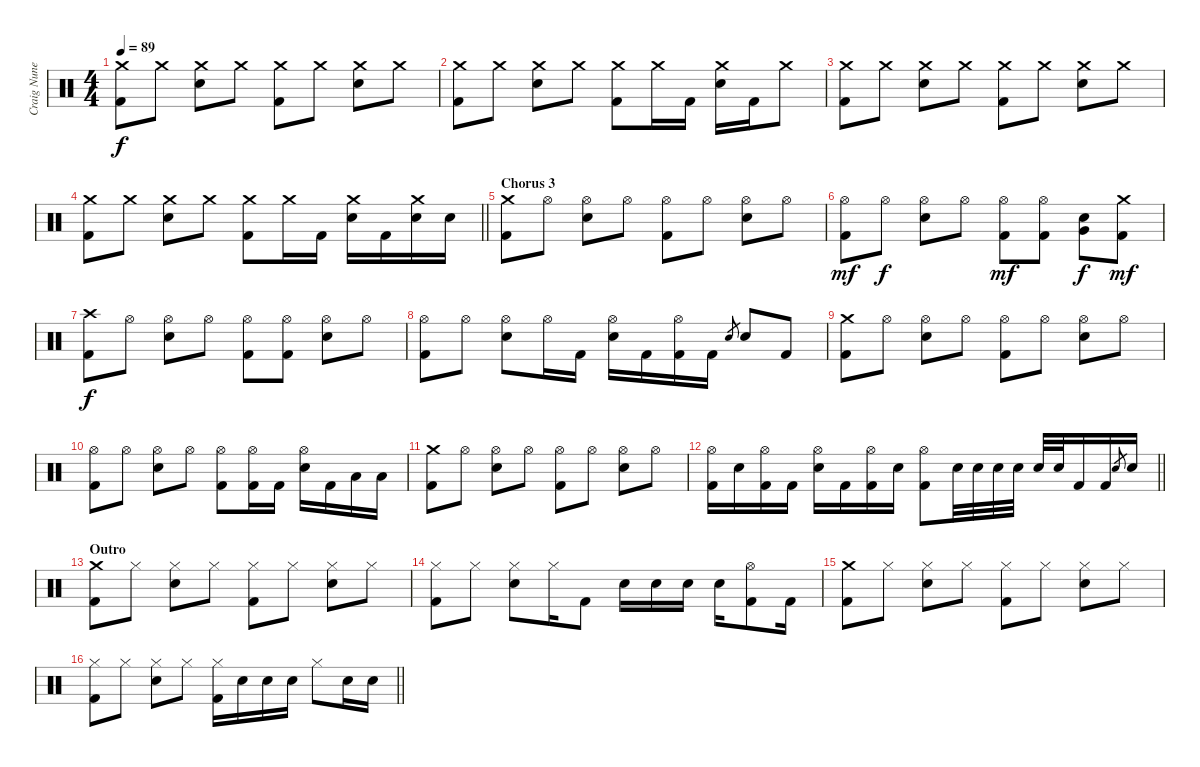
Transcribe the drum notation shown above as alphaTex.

\track ("Craig Nunenmacher" "Craig Nune") {instrument percussion}
\staff {score}
\articulation defaults
\ts (4 4)
\tempo 89
\clef neutral
\ks c
("Crash medium (hit)" "Kick (hit) 2").8{dy f} "Crash medium (hit)".8 ("Crash medium (hit)" "Snare (hit) 2").8 "Crash medium (hit)".8 ("Crash medium (hit)" "Kick (hit) 2").8 "Crash medium (hit)".8 ("Crash medium (hit)" "Snare (hit) 2").8 "Crash medium (hit)".8 |
("Crash medium (hit)" "Kick (hit) 2").8 "Crash medium (hit)".8 ("Crash medium (hit)" "Snare (hit) 2").8 "Crash medium (hit)".8 ("Crash medium (hit)" "Kick (hit) 2").8 "Crash medium (hit)".16 "Kick (hit) 2".16 ("Crash medium (hit)" "Snare (hit) 2").16 "Kick (hit) 2".16 "Crash medium (hit)".8 |
("Crash medium (hit)" "Kick (hit) 2").8 "Crash medium (hit)".8 ("Crash medium (hit)" "Snare (hit) 2").8 "Crash medium (hit)".8 ("Crash medium (hit)" "Kick (hit) 2").8 "Crash medium (hit)".8 ("Crash medium (hit)" "Snare (hit) 2").8 "Crash medium (hit)".8 |
\barLineRight lightlight
("Crash medium (hit)" "Kick (hit) 2").8 "Crash medium (hit)".8 ("Crash medium (hit)" "Snare (hit) 2").8 "Crash medium (hit)".8 ("Crash medium (hit)" "Kick (hit) 2").8 "Crash medium (hit)".16 "Kick (hit) 2".16 ("Crash medium (hit)" "Snare (hit) 2").16 "Kick (hit) 2".16 ("Crash medium (hit)" "Snare (hit) 2").16 "Snare (hit) 2".16 |
\section ("" "Chorus 3")
("Crash medium (hit)" "Kick (hit) 2").8 "Hi-Hat (open)".8 ("Hi-Hat (open)" "Snare (hit) 2").8 "Hi-Hat (open)".8 ("Hi-Hat (open)" "Kick (hit) 2").8 "Hi-Hat (open)".8 ("Hi-Hat (open)" "Snare (hit) 2").8 "Hi-Hat (open)".8 |
("Hi-Hat (open)" "Kick (hit) 2").8{dy mf} "Hi-Hat (open)".8{dy f} ("Hi-Hat (open)" "Snare (hit) 2").8 "Hi-Hat (open)".8 ("Hi-Hat (open)" "Kick (hit) 2").8{dy mf} ("Hi-Hat (open)" "Kick (hit) 2").8 ("Very Low Tom (hit)" "Snare (hit) 2").8{dy f} ("Crash medium (hit)" "Kick (hit) 2").8{dy mf} |
("Crash high (hit)" "Kick (hit) 2").8{dy f} "Hi-Hat (open)".8 ("Hi-Hat (open)" "Snare (hit) 2").8 "Hi-Hat (open)".8 ("Hi-Hat (open)" "Kick (hit) 2").8 ("Hi-Hat (open)" "Kick (hit) 2").8 ("Hi-Hat (open)" "Snare (hit) 2").8 "Hi-Hat (open)".8 |
("Hi-Hat (open)" "Kick (hit) 2").8 "Hi-Hat (open)".8 ("Hi-Hat (open)" "Snare (hit) 2").8 "Hi-Hat (open)".16 "Kick (hit) 2".16 ("Hi-Hat (open)" "Snare (hit) 2").16 "Kick (hit) 2".16 ("Hi-Hat (open)" "Kick (hit) 2").16 "Kick (hit) 2".16 "Snare (hit) 2".8{gr} "Snare (hit) 2".8 "Kick (hit) 2".8 |
("Crash medium (hit)" "Kick (hit) 2").8 "Hi-Hat (open)".8 ("Hi-Hat (open)" "Snare (hit) 2").8 "Hi-Hat (open)".8 ("Hi-Hat (open)" "Kick (hit) 2").8 "Hi-Hat (open)".8 ("Hi-Hat (open)" "Snare (hit) 2").8 "Hi-Hat (open)".8 |
("Hi-Hat (open)" "Kick (hit) 2").8 "Hi-Hat (open)".8 ("Hi-Hat (open)" "Snare (hit) 2").8 "Hi-Hat (open)".8 ("Hi-Hat (open)" "Kick (hit) 2").8 ("Hi-Hat (open)" "Kick (hit) 2").16 "Kick (hit) 2".16 ("Hi-Hat (open)" "Snare (hit) 2").16 "Kick (hit) 2".16 "Low Tom (hit)".16 "Low Tom (hit)".16 |
("Crash medium (hit)" "Kick (hit) 2").8 "Hi-Hat (open)".8 ("Hi-Hat (open)" "Snare (hit) 2").8 "Hi-Hat (open)".8 ("Hi-Hat (open)" "Kick (hit) 2").8 "Hi-Hat (open)".8 ("Hi-Hat (open)" "Snare (hit) 2").8 "Hi-Hat (open)".8 |
\barLineRight lightlight
("Hi-Hat (open)" "Kick (hit) 2").16 "Snare (hit) 2".16 ("Hi-Hat (open)" "Kick (hit) 2").16 "Kick (hit) 2".16 ("Hi-Hat (open)" "Snare (hit) 2").16 "Kick (hit) 2".16 ("Hi-Hat (open)" "Kick (hit) 2").16 "Snare (hit) 2".16 ("Hi-Hat (open)" "Kick (hit) 2").8 "Snare (hit) 2".32 "Snare (hit) 2".32 "Snare (hit) 2".32 "Snare (hit) 2".32 "Snare (hit) 2".32 "Snare (hit) 2".32 "Kick (hit) 2".16 "Kick (hit) 2".16 "Snare (hit) 2".8{gr} "Snare (hit) 2".16 |
\section ("" "Outro")
("Crash medium (hit)" "Kick (hit) 2").8 "Hi-Hat (closed)".8 ("Hi-Hat (closed)" "Snare (hit) 2").8 "Hi-Hat (closed)".8 ("Hi-Hat (closed)" "Kick (hit) 2").8 "Hi-Hat (closed)".8 ("Hi-Hat (closed)" "Snare (hit) 2").8 "Hi-Hat (closed)".8 |
("Hi-Hat (closed)" "Kick (hit) 2").8 "Hi-Hat (closed)".8 ("Hi-Hat (closed)" "Snare (hit) 2").8 "Hi-Hat (closed)".16 "Kick (hit) 2".8 "Snare (hit) 2".16 "Snare (hit) 2".16 "Snare (hit) 2".16 "Snare (hit) 2".16 ("Hi-Hat (open)" "Kick (hit) 2").8 "Kick (hit) 2".16 |
("Crash medium (hit)" "Kick (hit) 2").8 "Hi-Hat (closed)".8 ("Hi-Hat (closed)" "Snare (hit) 2").8 "Hi-Hat (closed)".8 ("Hi-Hat (closed)" "Kick (hit) 2").8 "Hi-Hat (closed)".8 ("Hi-Hat (closed)" "Snare (hit) 2").8 "Hi-Hat (closed)".8 |
\barLineRight lightlight
("Hi-Hat (closed)" "Kick (hit) 2").8 "Hi-Hat (closed)".8 ("Hi-Hat (closed)" "Snare (hit) 2").8 "Hi-Hat (closed)".8 ("Hi-Hat (closed)" "Kick (hit) 2").16 "Snare (hit) 2".16 "Snare (hit) 2".16 "Snare (hit) 2".16 "Hi-Hat (closed)".8 "Snare (hit) 2".16 "Snare (hit) 2".16
